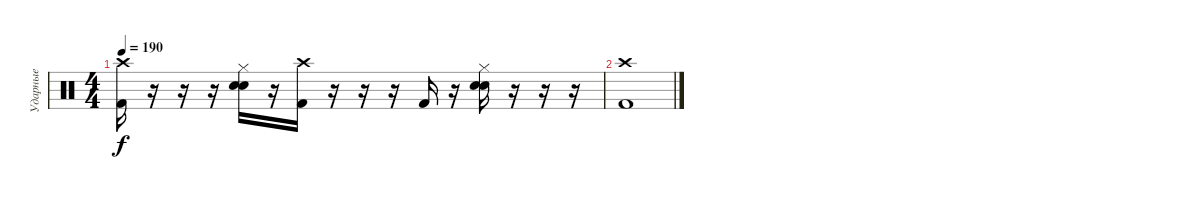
\track ("Ударные" "Ударные") {instrument percussion}
\staff {score}
\articulation defaults
\ts (4 4)
\tempo 190
\clef neutral
\ks c
("Kick (hit) 2" "Crash high (hit)").16{dy f} r.16 r.16 r.16 ("Snare (hit) 2" "Electric Snare (hit)" "Hi-Hat (closed)").16 r.16 ("Kick (hit) 2" "Crash high (hit)").16 r.16 r.16 r.16 "Kick (hit) 2".16 r.16 ("Snare (hit) 2" "Electric Snare (hit)" "Hi-Hat (closed)").16 r.16 r.16 r.16 |
("Kick (hit) 2" "Crash high (hit)").1
